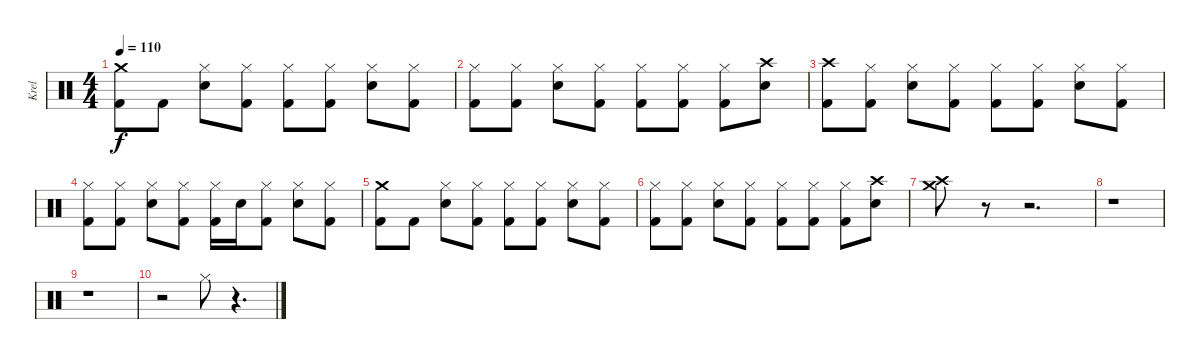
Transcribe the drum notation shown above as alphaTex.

\track ("Krel" "Krel") {instrument percussion}
\staff {score}
\articulation defaults
\ts (4 4)
\tempo 110
\clef neutral
\ks c
("Crash medium (hit)" "Kick (hit) 2").8{dy f} "Kick (hit) 2".8 ("Hi-Hat (closed)" "Snare (hit) 2").8 ("Hi-Hat (closed)" "Kick (hit) 2").8 ("Hi-Hat (closed)" "Kick (hit) 2").8 ("Hi-Hat (closed)" "Kick (hit) 2").8 ("Hi-Hat (closed)" "Snare (hit) 2").8 ("Hi-Hat (closed)" "Kick (hit) 2").8 |
("Hi-Hat (closed)" "Kick (hit) 2").8 ("Hi-Hat (closed)" "Kick (hit) 2").8 ("Hi-Hat (closed)" "Snare (hit) 2").8 ("Hi-Hat (closed)" "Kick (hit) 2").8 ("Hi-Hat (closed)" "Kick (hit) 2").8 ("Hi-Hat (closed)" "Kick (hit) 2").8 ("Hi-Hat (closed)" "Kick (hit) 2").8 ("Crash high (hit)" "Snare (hit) 2").8 |
("Crash high (hit)" "Kick (hit) 2").8 ("Hi-Hat (closed)" "Kick (hit) 2").8 ("Hi-Hat (closed)" "Snare (hit) 2").8 ("Hi-Hat (closed)" "Kick (hit) 2").8 ("Hi-Hat (closed)" "Kick (hit) 2").8 ("Hi-Hat (closed)" "Kick (hit) 2").8 ("Hi-Hat (closed)" "Snare (hit) 2").8 ("Hi-Hat (closed)" "Kick (hit) 2").8 |
("Hi-Hat (closed)" "Kick (hit) 2").8 ("Hi-Hat (closed)" "Kick (hit) 2").8 ("Hi-Hat (closed)" "Snare (hit) 2").8 ("Hi-Hat (closed)" "Kick (hit) 2").8 ("Hi-Hat (closed)" "Kick (hit) 2").16 "Snare (hit) 2".16 ("Hi-Hat (closed)" "Kick (hit) 2").8 ("Hi-Hat (closed)" "Snare (hit) 2").8 ("Hi-Hat (closed)" "Kick (hit) 2").8 |
("Crash medium (hit)" "Kick (hit) 2").8 "Kick (hit) 2".8 ("Hi-Hat (closed)" "Snare (hit) 2").8 ("Hi-Hat (closed)" "Kick (hit) 2").8 ("Hi-Hat (closed)" "Kick (hit) 2").8 ("Hi-Hat (closed)" "Kick (hit) 2").8 ("Hi-Hat (closed)" "Snare (hit) 2").8 ("Hi-Hat (closed)" "Kick (hit) 2").8 |
("Hi-Hat (closed)" "Kick (hit) 2").8 ("Hi-Hat (closed)" "Kick (hit) 2").8 ("Hi-Hat (closed)" "Snare (hit) 2").8 ("Hi-Hat (closed)" "Kick (hit) 2").8 ("Hi-Hat (closed)" "Kick (hit) 2").8 ("Hi-Hat (closed)" "Kick (hit) 2").8 ("Hi-Hat (closed)" "Kick (hit) 2").8 ("Crash high (hit)" "Snare (hit) 2").8 |
("Crash medium (hit)" "Crash high (hit)").8 r.8 r.2{d} |
r.1 |
r.1 |
r.2 "Hi-Hat (closed)".8 r.4{d}
